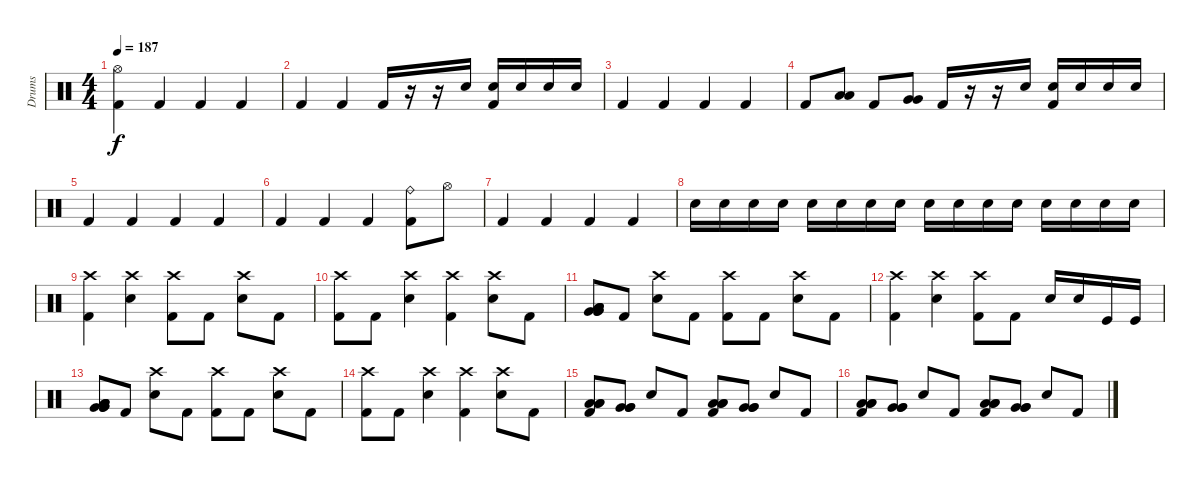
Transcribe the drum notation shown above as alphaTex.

\track ("Drums" "Drums") {instrument percussion}
\staff {score}
\articulation defaults
\ts (4 4)
\tempo 187
\clef neutral
\ks c
("Hi-Hat (open)" "Kick (hit) 2").4{dy f} "Kick (hit) 2".4 "Kick (hit) 2".4 "Kick (hit) 2".4 |
"Kick (hit) 2".4 "Kick (hit) 2".4 "Kick (hit) 2".16 r.16 r.16 "Electric Snare (hit)".16 ("Electric Snare (hit)" "Kick (hit) 2").16 "Electric Snare (hit)".16 "Electric Snare (hit)".16 "Electric Snare (hit)".16 |
"Kick (hit) 2".4 "Kick (hit) 2".4 "Kick (hit) 2".4 "Kick (hit) 2".4 |
"Kick (hit) 2".8 ("Low Tom (hit)" "Low Tom (hit)").8 "Kick (hit) 2".8 ("Very Low Tom (hit)" "Very Low Tom (hit)").8 "Kick (hit) 2".16 r.16 r.16 "Electric Snare (hit)".16 ("Electric Snare (hit)" "Kick (hit) 2").16 "Electric Snare (hit)".16 "Electric Snare (hit)".16 "Electric Snare (hit)".16 |
"Kick (hit) 2".4 "Kick (hit) 2".4 "Kick (hit) 2".4 "Kick (hit) 2".4 |
"Kick (hit) 2".4 "Kick (hit) 2".4 "Kick (hit) 2".4 ("Ride (bell)" "Kick (hit) 2").8 "Hi-Hat (open)".8 |
"Kick (hit) 2".4 "Kick (hit) 2".4 "Kick (hit) 2".4 "Kick (hit) 2".4 |
"Electric Snare (hit)".16 "Electric Snare (hit)".16 "Electric Snare (hit)".16 "Electric Snare (hit)".16 "Electric Snare (hit)".16 "Electric Snare (hit)".16 "Electric Snare (hit)".16 "Electric Snare (hit)".16 "Electric Snare (hit)".16 "Electric Snare (hit)".16 "Electric Snare (hit)".16 "Electric Snare (hit)".16 "Electric Snare (hit)".16 "Electric Snare (hit)".16 "Electric Snare (hit)".16 "Electric Snare (hit)".16 |
("Crash high (hit)" "Kick (hit) 2").4 ("Crash high (hit)" "Electric Snare (hit)").4 ("Crash high (hit)" "Kick (hit) 2").8 "Kick (hit) 2".8 ("Crash high (hit)" "Electric Snare (hit)").8 "Kick (hit) 2".8 |
("Crash high (hit)" "Kick (hit) 2").8 "Kick (hit) 2".8 ("Crash high (hit)" "Electric Snare (hit)").4 ("Crash high (hit)" "Kick (hit) 2").4 ("Crash high (hit)" "Electric Snare (hit)").8 "Kick (hit) 2".8 |
("Low Tom (hit)" "Low Tom (hit)" "Low Tom (hit)" "Very Low Tom (hit)" "Very Low Tom (hit)" "Very Low Tom (hit)").8 "Kick (hit) 2".8 ("Crash high (hit)" "Electric Snare (hit)").8 "Kick (hit) 2".8 ("Crash high (hit)" "Kick (hit) 2").8 "Kick (hit) 2".8 ("Crash high (hit)" "Electric Snare (hit)").8 "Kick (hit) 2".8 |
("Crash high (hit)" "Kick (hit) 2").4 ("Crash high (hit)" "Electric Snare (hit)").4 ("Crash high (hit)" "Kick (hit) 2").8 "Kick (hit) 2".8 "Electric Snare (hit)".16 "Electric Snare (hit)".16 "Kick (hit)".16 "Kick (hit)".16 |
("Low Tom (hit)" "Low Tom (hit)" "Low Tom (hit)" "Very Low Tom (hit)" "Very Low Tom (hit)" "Very Low Tom (hit)").8 "Kick (hit) 2".8 ("Crash high (hit)" "Electric Snare (hit)").8 "Kick (hit) 2".8 ("Crash high (hit)" "Kick (hit) 2").8 "Kick (hit) 2".8 ("Crash high (hit)" "Electric Snare (hit)").8 "Kick (hit) 2".8 |
("Crash high (hit)" "Kick (hit) 2").8 "Kick (hit) 2".8 ("Crash high (hit)" "Electric Snare (hit)").4 ("Crash high (hit)" "Kick (hit) 2").4 ("Crash high (hit)" "Electric Snare (hit)").8 "Kick (hit) 2".8 |
("Low Tom (hit)" "Low Tom (hit)" "Low Tom (hit)" "Kick (hit) 2").8 ("Very Low Tom (hit)" "Very Low Tom (hit)" "Very Low Tom (hit)").8 "Electric Snare (hit)".8 "Kick (hit) 2".8 ("Low Tom (hit)" "Low Tom (hit)" "Low Tom (hit)" "Kick (hit) 2").8 ("Very Low Tom (hit)" "Very Low Tom (hit)" "Very Low Tom (hit)").8 "Electric Snare (hit)".8 "Kick (hit) 2".8 |
("Low Tom (hit)" "Low Tom (hit)" "Low Tom (hit)" "Kick (hit) 2").8 ("Very Low Tom (hit)" "Very Low Tom (hit)" "Very Low Tom (hit)").8 "Electric Snare (hit)".8 "Kick (hit) 2".8 ("Low Tom (hit)" "Low Tom (hit)" "Low Tom (hit)" "Kick (hit) 2").8 ("Very Low Tom (hit)" "Very Low Tom (hit)" "Very Low Tom (hit)").8 "Electric Snare (hit)".8 "Kick (hit) 2".8
